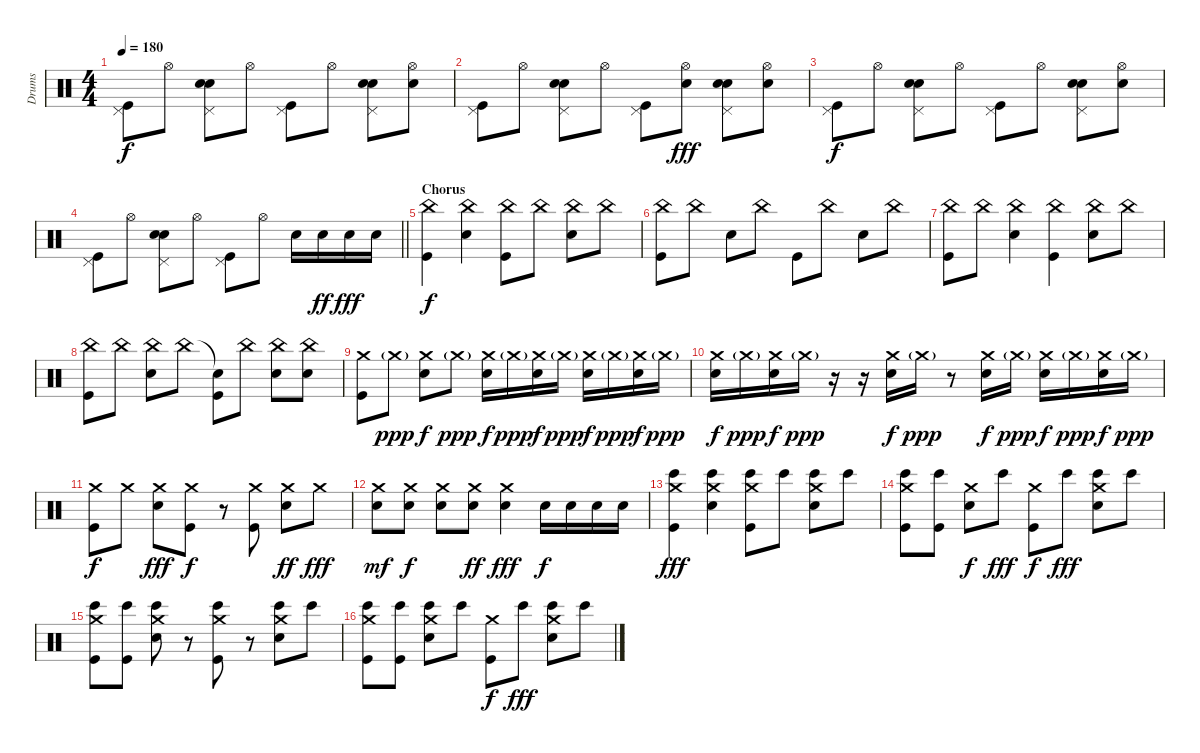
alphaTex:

\track ("Drums" "Drums") {instrument percussion}
\staff {score}
\articulation defaults
\ts (4 4)
\tempo 180
\clef neutral
\ks c
("Pedal Hi-Hat (hit)" "Kick (hit)").8{dy f} "Hi-Hat (open)".8 ("Pedal Hi-Hat (hit)" "Electric Snare (hit)" "Hand Clap (hit)").8 "Hi-Hat (open)".8 ("Pedal Hi-Hat (hit)" "Kick (hit)").8 "Hi-Hat (open)".8 ("Pedal Hi-Hat (hit)" "Electric Snare (hit)" "Hand Clap (hit)").8 ("Hi-Hat (open)" "Hand Clap (hit)").8 |
("Pedal Hi-Hat (hit)" "Kick (hit)").8 "Hi-Hat (open)".8 ("Pedal Hi-Hat (hit)" "Electric Snare (hit)" "Hand Clap (hit)").8 "Hi-Hat (open)".8 ("Pedal Hi-Hat (hit)" "Kick (hit)").8 ("Hi-Hat (open)" "Hand Clap (hit)").8{dy fff} ("Pedal Hi-Hat (hit)" "Electric Snare (hit)" "Hand Clap (hit)").8 ("Hi-Hat (open)" "Hand Clap (hit)").8 |
("Pedal Hi-Hat (hit)" "Kick (hit)").8{dy f} "Hi-Hat (open)".8 ("Pedal Hi-Hat (hit)" "Electric Snare (hit)" "Hand Clap (hit)").8 "Hi-Hat (open)".8 ("Pedal Hi-Hat (hit)" "Kick (hit)").8 "Hi-Hat (open)".8 ("Pedal Hi-Hat (hit)" "Electric Snare (hit)" "Hand Clap (hit)").8 ("Hi-Hat (open)" "Hand Clap (hit)").8 |
\barLineRight lightlight
("Pedal Hi-Hat (hit)" "Kick (hit)").8 "Hi-Hat (open)".8 ("Pedal Hi-Hat (hit)" "Electric Snare (hit)" "Hand Clap (hit)").8 "Hi-Hat (open)".8 ("Pedal Hi-Hat (hit)" "Kick (hit)").8 "Hi-Hat (open)".8 "Electric Snare (hit)".16 "Electric Snare (hit)".16{dy ff} "Electric Snare (hit)".16{dy fff} "Electric Snare (hit)".16 |
\section ("" "Chorus")
("China (hit)" "Kick (hit)").4{dy f} ("China (hit)" "Electric Snare (hit)").4 ("China (hit)" "Kick (hit)").8 "China (hit)".8 ("China (hit)" "Electric Snare (hit)").8 "China (hit)".8 |
("China (hit)" "Kick (hit)").8 "China (hit)".8 "Electric Snare (hit)".8 "China (hit)".8 "Kick (hit)".8 "China (hit)".8 "Electric Snare (hit)".8 "China (hit)".8 |
("China (hit)" "Kick (hit)").8 "China (hit)".8 ("China (hit)" "Electric Snare (hit)").4 ("China (hit)" "Kick (hit)").4 ("China (hit)" "Electric Snare (hit)").8 "China (hit)".8 |
("China (hit)" "Kick (hit)").8 "China (hit)".8 ("China (hit)" "Electric Snare (hit)").8 "China (hit)".8 ("Snare (hit)"{t} "Kick (hit)").8 "China (hit)".8 ("China (hit)" "Electric Snare (hit)").8 ("China (hit)" "Electric Snare (hit)").8 |
("Crash medium (hit)" "Kick (hit)").8 "Crash medium (hit)"{g}.8{dy ppp} ("Crash medium (hit)" "Electric Snare (hit)").8{dy f} "Crash medium (hit)"{g}.8{dy ppp} ("Crash medium (hit)" "Electric Snare (hit)").16{dy f} "Crash medium (hit)"{g}.16{dy ppp} ("Crash medium (hit)" "Electric Snare (hit)").16{dy f} "Crash medium (hit)"{g}.16{dy ppp} ("Crash medium (hit)" "Electric Snare (hit)").16{dy f} "Crash medium (hit)"{g}.16{dy ppp} ("Crash medium (hit)" "Electric Snare (hit)").16{dy f} "Crash medium (hit)"{g}.16{dy ppp} |
("Crash medium (hit)" "Electric Snare (hit)").16{dy f} "Crash medium (hit)"{g}.16{dy ppp} ("Crash medium (hit)" "Electric Snare (hit)").16{dy f} "Crash medium (hit)"{g}.16{dy ppp} r.16 r.16 ("Crash medium (hit)" "Electric Snare (hit)").16{dy f} "Crash medium (hit)"{g}.16{dy ppp} r.8 ("Crash medium (hit)" "Electric Snare (hit)").16{dy f} "Crash medium (hit)"{g}.16{dy ppp} ("Crash medium (hit)" "Electric Snare (hit)").16{dy f} "Crash medium (hit)"{g}.16{dy ppp} ("Crash medium (hit)" "Electric Snare (hit)").16{dy f} "Crash medium (hit)"{g}.16{dy ppp} |
("Crash medium (hit)" "Kick (hit)").8{dy f} "Crash medium (hit)".8 ("Crash medium (hit)" "Electric Snare (hit)").8{dy fff} ("Crash medium (hit)" "Kick (hit)").8{dy f} r.8 ("Crash medium (hit)" "Kick (hit)").8 ("Crash medium (hit)" "Electric Snare (hit)").8{dy ff} "Crash medium (hit)".8{dy fff} |
("Crash medium (hit)" "Electric Snare (hit)").8{dy mf} ("Crash medium (hit)" "Electric Snare (hit)").8{dy f} ("Crash medium (hit)" "Electric Snare (hit)").8 ("Crash medium (hit)" "Electric Snare (hit)").8{dy ff} ("Crash medium (hit)" "Electric Snare (hit)").4{dy fff} "Electric Snare (hit)".16{dy f} "Electric Snare (hit)".16 "Electric Snare (hit)".16 "Electric Snare (hit)".16 |
("Crash medium (hit)" "Bongo High (hit)" "Kick (hit)").4{dy fff} ("Crash medium (hit)" "Electric Snare (hit)" "Bongo High (hit)").4 ("Crash medium (hit)" "Bongo High (hit)" "Kick (hit)").8 "Bongo High (hit)".8 ("Crash medium (hit)" "Electric Snare (hit)" "Bongo High (hit)").8 "Bongo High (hit)".8 |
("Crash medium (hit)" "Bongo High (hit)" "Kick (hit)").8 ("Bongo High (hit)" "Kick (hit)").8 ("Crash medium (hit)" "Electric Snare (hit)").8{dy f} "Bongo High (hit)".8{dy fff} ("Crash medium (hit)" "Kick (hit)").8{dy f} "Bongo High (hit)".8{dy fff} ("Crash medium (hit)" "Electric Snare (hit)" "Bongo High (hit)").8 "Bongo High (hit)".8 |
("Crash medium (hit)" "Bongo High (hit)" "Kick (hit)").8 ("Bongo High (hit)" "Kick (hit)").8 ("Crash medium (hit)" "Electric Snare (hit)" "Bongo High (hit)").8 r.8 ("Crash medium (hit)" "Bongo High (hit)" "Kick (hit)").8 r.8 ("Crash medium (hit)" "Electric Snare (hit)" "Bongo High (hit)").8 "Bongo High (hit)".8 |
("Crash medium (hit)" "Bongo High (hit)" "Kick (hit)").8 ("Bongo High (hit)" "Kick (hit)").8 ("Crash medium (hit)" "Electric Snare (hit)" "Bongo High (hit)").8 "Bongo High (hit)".8 ("Crash medium (hit)" "Kick (hit)").8{dy f} "Bongo High (hit)".8{dy fff} ("Crash medium (hit)" "Electric Snare (hit)" "Bongo High (hit)").8 "Bongo High (hit)".8
